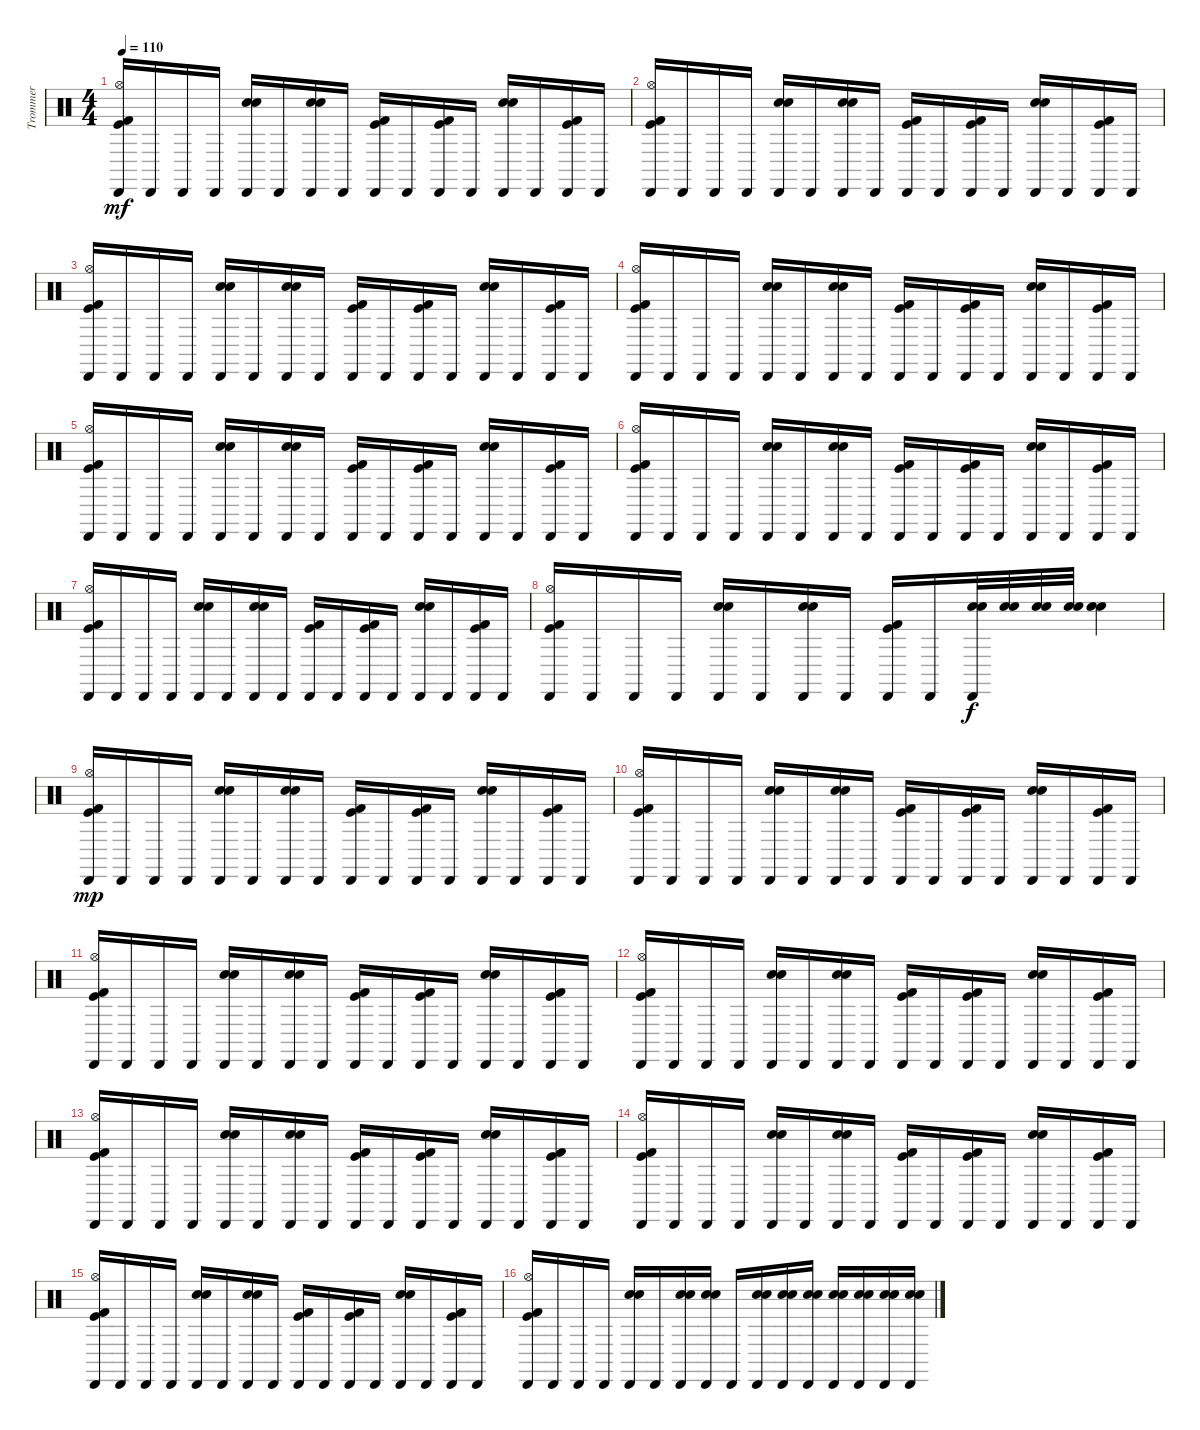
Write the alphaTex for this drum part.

\track ("Trommer" "Trommer") {instrument percussion}
\staff {score}
\articulation defaults
\ts (4 4)
\tempo 110
\clef neutral
\ks c
("Cabasa (hit)" "Hi-Hat (open)" "Kick (hit)" "Kick (hit) 2").16{dy mf} "Cabasa (hit)".16 "Cabasa (hit)".16 "Cabasa (hit)".16 ("Cabasa (hit)" "Snare (hit) 2" "Electric Snare (hit)").16 "Cabasa (hit)".16 ("Cabasa (hit)" "Snare (hit) 2" "Electric Snare (hit)").16 "Cabasa (hit)".16 ("Cabasa (hit)" "Kick (hit)" "Kick (hit) 2").16 "Cabasa (hit)".16 ("Cabasa (hit)" "Kick (hit) 2" "Kick (hit)").16 "Cabasa (hit)".16 ("Cabasa (hit)" "Snare (hit) 2" "Electric Snare (hit)").16 "Cabasa (hit)".16 ("Cabasa (hit)" "Kick (hit) 2" "Kick (hit)").16 "Cabasa (hit)".16 |
("Cabasa (hit)" "Hi-Hat (open)" "Kick (hit)" "Kick (hit) 2").16 "Cabasa (hit)".16 "Cabasa (hit)".16 "Cabasa (hit)".16 ("Cabasa (hit)" "Snare (hit) 2" "Electric Snare (hit)").16 "Cabasa (hit)".16 ("Cabasa (hit)" "Snare (hit) 2" "Electric Snare (hit)").16 "Cabasa (hit)".16 ("Cabasa (hit)" "Kick (hit)" "Kick (hit) 2").16 "Cabasa (hit)".16 ("Cabasa (hit)" "Kick (hit) 2" "Kick (hit)").16 "Cabasa (hit)".16 ("Cabasa (hit)" "Snare (hit) 2" "Electric Snare (hit)").16 "Cabasa (hit)".16 ("Cabasa (hit)" "Kick (hit) 2" "Kick (hit)").16 "Cabasa (hit)".16 |
("Cabasa (hit)" "Hi-Hat (open)" "Kick (hit)" "Kick (hit) 2").16 "Cabasa (hit)".16 "Cabasa (hit)".16 "Cabasa (hit)".16 ("Cabasa (hit)" "Snare (hit) 2" "Electric Snare (hit)").16 "Cabasa (hit)".16 ("Cabasa (hit)" "Snare (hit) 2" "Electric Snare (hit)").16 "Cabasa (hit)".16 ("Cabasa (hit)" "Kick (hit)" "Kick (hit) 2").16 "Cabasa (hit)".16 ("Cabasa (hit)" "Kick (hit) 2" "Kick (hit)").16 "Cabasa (hit)".16 ("Cabasa (hit)" "Snare (hit) 2" "Electric Snare (hit)").16 "Cabasa (hit)".16 ("Cabasa (hit)" "Kick (hit) 2" "Kick (hit)").16 "Cabasa (hit)".16 |
("Cabasa (hit)" "Hi-Hat (open)" "Kick (hit)" "Kick (hit) 2").16 "Cabasa (hit)".16 "Cabasa (hit)".16 "Cabasa (hit)".16 ("Cabasa (hit)" "Snare (hit) 2" "Electric Snare (hit)").16 "Cabasa (hit)".16 ("Cabasa (hit)" "Snare (hit) 2" "Electric Snare (hit)").16 "Cabasa (hit)".16 ("Cabasa (hit)" "Kick (hit)" "Kick (hit) 2").16 "Cabasa (hit)".16 ("Cabasa (hit)" "Kick (hit) 2" "Kick (hit)").16 "Cabasa (hit)".16 ("Cabasa (hit)" "Snare (hit) 2" "Electric Snare (hit)").16 "Cabasa (hit)".16 ("Cabasa (hit)" "Kick (hit) 2" "Kick (hit)").16 "Cabasa (hit)".16 |
("Cabasa (hit)" "Hi-Hat (open)" "Kick (hit)" "Kick (hit) 2").16 "Cabasa (hit)".16 "Cabasa (hit)".16 "Cabasa (hit)".16 ("Cabasa (hit)" "Snare (hit) 2" "Electric Snare (hit)").16 "Cabasa (hit)".16 ("Cabasa (hit)" "Snare (hit) 2" "Electric Snare (hit)").16 "Cabasa (hit)".16 ("Cabasa (hit)" "Kick (hit)" "Kick (hit) 2").16 "Cabasa (hit)".16 ("Cabasa (hit)" "Kick (hit) 2" "Kick (hit)").16 "Cabasa (hit)".16 ("Cabasa (hit)" "Snare (hit) 2" "Electric Snare (hit)").16 "Cabasa (hit)".16 ("Cabasa (hit)" "Kick (hit) 2" "Kick (hit)").16 "Cabasa (hit)".16 |
("Cabasa (hit)" "Hi-Hat (open)" "Kick (hit)" "Kick (hit) 2").16 "Cabasa (hit)".16 "Cabasa (hit)".16 "Cabasa (hit)".16 ("Cabasa (hit)" "Snare (hit) 2" "Electric Snare (hit)").16 "Cabasa (hit)".16 ("Cabasa (hit)" "Snare (hit) 2" "Electric Snare (hit)").16 "Cabasa (hit)".16 ("Cabasa (hit)" "Kick (hit)" "Kick (hit) 2").16 "Cabasa (hit)".16 ("Cabasa (hit)" "Kick (hit) 2" "Kick (hit)").16 "Cabasa (hit)".16 ("Cabasa (hit)" "Snare (hit) 2" "Electric Snare (hit)").16 "Cabasa (hit)".16 ("Cabasa (hit)" "Kick (hit) 2" "Kick (hit)").16 "Cabasa (hit)".16 |
("Cabasa (hit)" "Hi-Hat (open)" "Kick (hit)" "Kick (hit) 2").16 "Cabasa (hit)".16 "Cabasa (hit)".16 "Cabasa (hit)".16 ("Cabasa (hit)" "Snare (hit) 2" "Electric Snare (hit)").16 "Cabasa (hit)".16 ("Cabasa (hit)" "Snare (hit) 2" "Electric Snare (hit)").16 "Cabasa (hit)".16 ("Cabasa (hit)" "Kick (hit)" "Kick (hit) 2").16 "Cabasa (hit)".16 ("Cabasa (hit)" "Kick (hit) 2" "Kick (hit)").16 "Cabasa (hit)".16 ("Cabasa (hit)" "Snare (hit) 2" "Electric Snare (hit)").16 "Cabasa (hit)".16 ("Cabasa (hit)" "Kick (hit) 2" "Kick (hit)").16 "Cabasa (hit)".16 |
("Cabasa (hit)" "Hi-Hat (open)" "Kick (hit)" "Kick (hit) 2").16 "Cabasa (hit)".16 "Cabasa (hit)".16 "Cabasa (hit)".16 ("Cabasa (hit)" "Snare (hit) 2" "Electric Snare (hit)").16 "Cabasa (hit)".16 ("Cabasa (hit)" "Snare (hit) 2" "Electric Snare (hit)").16 "Cabasa (hit)".16 ("Cabasa (hit)" "Kick (hit)" "Kick (hit) 2").16 "Cabasa (hit)".16 ("Cabasa (hit)" "Snare (hit) 2" "Snare (hit) 2").32{dy f} ("Electric Snare (hit)" "Snare (hit) 2").32 ("Snare (hit) 2" "Electric Snare (hit)").32 ("Electric Snare (hit)" "Snare (hit) 2").32 ("Snare (hit) 2" "Snare (hit) 2").4 |
("Cabasa (hit)" "Hi-Hat (open)" "Kick (hit)" "Kick (hit) 2").16{dy mp} "Cabasa (hit)".16 "Cabasa (hit)".16 "Cabasa (hit)".16 ("Cabasa (hit)" "Snare (hit) 2" "Electric Snare (hit)").16 "Cabasa (hit)".16 ("Cabasa (hit)" "Snare (hit) 2" "Electric Snare (hit)").16 "Cabasa (hit)".16 ("Cabasa (hit)" "Kick (hit)" "Kick (hit) 2").16 "Cabasa (hit)".16 ("Cabasa (hit)" "Kick (hit) 2" "Kick (hit)").16 "Cabasa (hit)".16 ("Cabasa (hit)" "Snare (hit) 2" "Electric Snare (hit)").16 "Cabasa (hit)".16 ("Cabasa (hit)" "Kick (hit) 2" "Kick (hit)").16 "Cabasa (hit)".16 |
("Cabasa (hit)" "Hi-Hat (open)" "Kick (hit)" "Kick (hit) 2").16 "Cabasa (hit)".16 "Cabasa (hit)".16 "Cabasa (hit)".16 ("Cabasa (hit)" "Snare (hit) 2" "Electric Snare (hit)").16 "Cabasa (hit)".16 ("Cabasa (hit)" "Snare (hit) 2" "Electric Snare (hit)").16 "Cabasa (hit)".16 ("Cabasa (hit)" "Kick (hit)" "Kick (hit) 2").16 "Cabasa (hit)".16 ("Cabasa (hit)" "Kick (hit) 2" "Kick (hit)").16 "Cabasa (hit)".16 ("Cabasa (hit)" "Snare (hit) 2" "Electric Snare (hit)").16 "Cabasa (hit)".16 ("Cabasa (hit)" "Kick (hit) 2" "Kick (hit)").16 "Cabasa (hit)".16 |
("Cabasa (hit)" "Hi-Hat (open)" "Kick (hit)" "Kick (hit) 2").16 "Cabasa (hit)".16 "Cabasa (hit)".16 "Cabasa (hit)".16 ("Cabasa (hit)" "Snare (hit) 2" "Electric Snare (hit)").16 "Cabasa (hit)".16 ("Cabasa (hit)" "Snare (hit) 2" "Electric Snare (hit)").16 "Cabasa (hit)".16 ("Cabasa (hit)" "Kick (hit)" "Kick (hit) 2").16 "Cabasa (hit)".16 ("Cabasa (hit)" "Kick (hit) 2" "Kick (hit)").16 "Cabasa (hit)".16 ("Cabasa (hit)" "Snare (hit) 2" "Electric Snare (hit)").16 "Cabasa (hit)".16 ("Cabasa (hit)" "Kick (hit) 2" "Kick (hit)").16 "Cabasa (hit)".16 |
("Cabasa (hit)" "Hi-Hat (open)" "Kick (hit)" "Kick (hit) 2").16 "Cabasa (hit)".16 "Cabasa (hit)".16 "Cabasa (hit)".16 ("Cabasa (hit)" "Snare (hit) 2" "Electric Snare (hit)").16 "Cabasa (hit)".16 ("Cabasa (hit)" "Snare (hit) 2" "Electric Snare (hit)").16 "Cabasa (hit)".16 ("Cabasa (hit)" "Kick (hit)" "Kick (hit) 2").16 "Cabasa (hit)".16 ("Cabasa (hit)" "Kick (hit) 2" "Kick (hit)").16 "Cabasa (hit)".16 ("Cabasa (hit)" "Snare (hit) 2" "Electric Snare (hit)").16 "Cabasa (hit)".16 ("Cabasa (hit)" "Kick (hit) 2" "Kick (hit)").16 "Cabasa (hit)".16 |
("Cabasa (hit)" "Hi-Hat (open)" "Kick (hit)" "Kick (hit) 2").16 "Cabasa (hit)".16 "Cabasa (hit)".16 "Cabasa (hit)".16 ("Cabasa (hit)" "Snare (hit) 2" "Electric Snare (hit)").16 "Cabasa (hit)".16 ("Cabasa (hit)" "Snare (hit) 2" "Electric Snare (hit)").16 "Cabasa (hit)".16 ("Cabasa (hit)" "Kick (hit)" "Kick (hit) 2").16 "Cabasa (hit)".16 ("Cabasa (hit)" "Kick (hit) 2" "Kick (hit)").16 "Cabasa (hit)".16 ("Cabasa (hit)" "Snare (hit) 2" "Electric Snare (hit)").16 "Cabasa (hit)".16 ("Cabasa (hit)" "Kick (hit) 2" "Kick (hit)").16 "Cabasa (hit)".16 |
("Cabasa (hit)" "Hi-Hat (open)" "Kick (hit)" "Kick (hit) 2").16 "Cabasa (hit)".16 "Cabasa (hit)".16 "Cabasa (hit)".16 ("Cabasa (hit)" "Snare (hit) 2" "Electric Snare (hit)").16 "Cabasa (hit)".16 ("Cabasa (hit)" "Snare (hit) 2" "Electric Snare (hit)").16 "Cabasa (hit)".16 ("Cabasa (hit)" "Kick (hit)" "Kick (hit) 2").16 "Cabasa (hit)".16 ("Cabasa (hit)" "Kick (hit) 2" "Kick (hit)").16 "Cabasa (hit)".16 ("Cabasa (hit)" "Snare (hit) 2" "Electric Snare (hit)").16 "Cabasa (hit)".16 ("Cabasa (hit)" "Kick (hit) 2" "Kick (hit)").16 "Cabasa (hit)".16 |
("Cabasa (hit)" "Hi-Hat (open)" "Kick (hit)" "Kick (hit) 2").16 "Cabasa (hit)".16 "Cabasa (hit)".16 "Cabasa (hit)".16 ("Cabasa (hit)" "Snare (hit) 2" "Electric Snare (hit)").16 "Cabasa (hit)".16 ("Cabasa (hit)" "Snare (hit) 2" "Electric Snare (hit)").16 "Cabasa (hit)".16 ("Cabasa (hit)" "Kick (hit)" "Kick (hit) 2").16 "Cabasa (hit)".16 ("Cabasa (hit)" "Kick (hit) 2" "Kick (hit)").16 "Cabasa (hit)".16 ("Cabasa (hit)" "Snare (hit) 2" "Electric Snare (hit)").16 "Cabasa (hit)".16 ("Cabasa (hit)" "Kick (hit) 2" "Kick (hit)").16 "Cabasa (hit)".16 |
("Cabasa (hit)" "Hi-Hat (open)" "Kick (hit)" "Kick (hit) 2").16 "Cabasa (hit)".16 "Cabasa (hit)".16 "Cabasa (hit)".16 ("Cabasa (hit)" "Snare (hit) 2" "Electric Snare (hit)").16 "Cabasa (hit)".16 ("Cabasa (hit)" "Snare (hit) 2" "Electric Snare (hit)").16 ("Cabasa (hit)" "Snare (hit) 2" "Electric Snare (hit)").16 "Cabasa (hit)".16 ("Cabasa (hit)" "Snare (hit) 2" "Electric Snare (hit)").16 ("Cabasa (hit)" "Electric Snare (hit)" "Snare (hit) 2").16 ("Cabasa (hit)" "Snare (hit) 2" "Electric Snare (hit)").16 ("Cabasa (hit)" "Snare (hit) 2" "Electric Snare (hit)").16 ("Cabasa (hit)" "Snare (hit) 2" "Electric Snare (hit)").16 ("Cabasa (hit)" "Electric Snare (hit)" "Snare (hit) 2").16 ("Cabasa (hit)" "Snare (hit) 2" "Electric Snare (hit)").16
